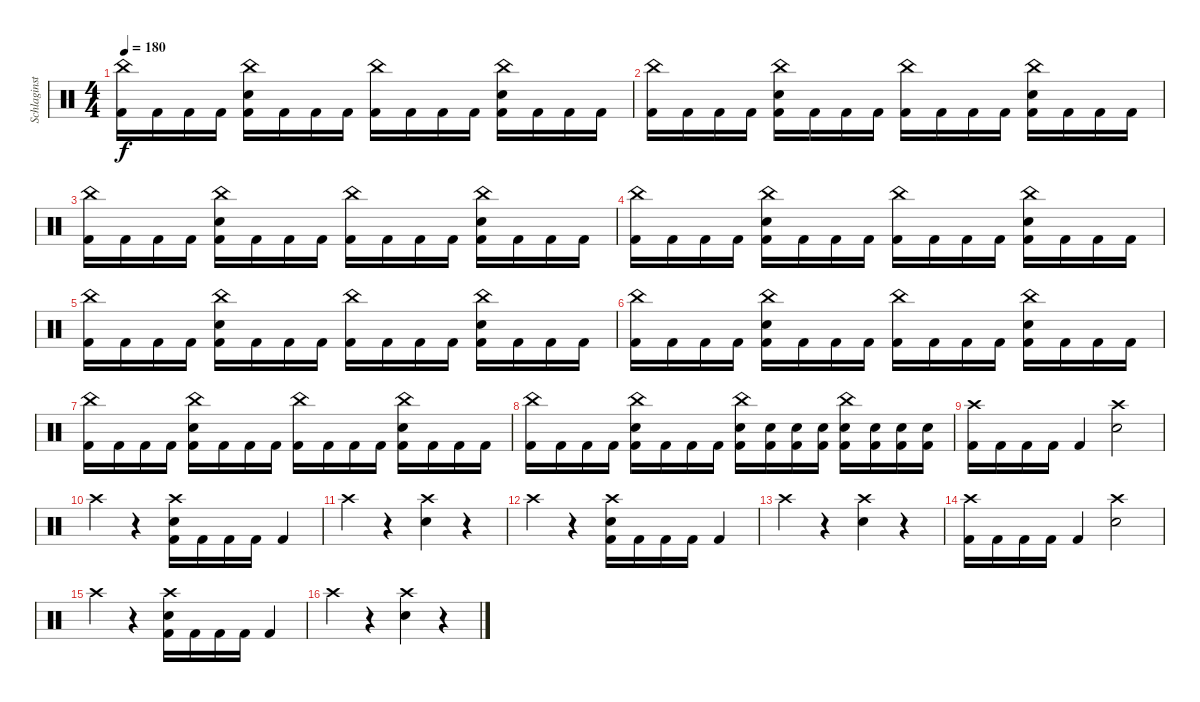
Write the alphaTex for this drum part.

\track ("Schlaginstrumente - Auswahl" "Schlaginst") {instrument percussion}
\staff {score}
\articulation defaults
\ts (4 4)
\tempo 180
\clef neutral
\ks c
("China (hit)" "Kick (hit) 2").16{dy f} "Kick (hit) 2".16 "Kick (hit) 2".16 "Kick (hit) 2".16 ("China (hit)" "Snare (hit) 2" "Kick (hit) 2").16 "Kick (hit) 2".16 "Kick (hit) 2".16 "Kick (hit) 2".16 ("China (hit)" "Kick (hit) 2").16 "Kick (hit) 2".16 "Kick (hit) 2".16 "Kick (hit) 2".16 ("China (hit)" "Snare (hit) 2" "Kick (hit) 2").16 "Kick (hit) 2".16 "Kick (hit) 2".16 "Kick (hit) 2".16 |
("China (hit)" "Kick (hit) 2").16 "Kick (hit) 2".16 "Kick (hit) 2".16 "Kick (hit) 2".16 ("China (hit)" "Snare (hit) 2" "Kick (hit) 2").16 "Kick (hit) 2".16 "Kick (hit) 2".16 "Kick (hit) 2".16 ("China (hit)" "Kick (hit) 2").16 "Kick (hit) 2".16 "Kick (hit) 2".16 "Kick (hit) 2".16 ("China (hit)" "Snare (hit) 2" "Kick (hit) 2").16 "Kick (hit) 2".16 "Kick (hit) 2".16 "Kick (hit) 2".16 |
("China (hit)" "Kick (hit) 2").16 "Kick (hit) 2".16 "Kick (hit) 2".16 "Kick (hit) 2".16 ("China (hit)" "Snare (hit) 2" "Kick (hit) 2").16 "Kick (hit) 2".16 "Kick (hit) 2".16 "Kick (hit) 2".16 ("China (hit)" "Kick (hit) 2").16 "Kick (hit) 2".16 "Kick (hit) 2".16 "Kick (hit) 2".16 ("China (hit)" "Snare (hit) 2" "Kick (hit) 2").16 "Kick (hit) 2".16 "Kick (hit) 2".16 "Kick (hit) 2".16 |
("China (hit)" "Kick (hit) 2").16 "Kick (hit) 2".16 "Kick (hit) 2".16 "Kick (hit) 2".16 ("China (hit)" "Snare (hit) 2" "Kick (hit) 2").16 "Kick (hit) 2".16 "Kick (hit) 2".16 "Kick (hit) 2".16 ("China (hit)" "Kick (hit) 2").16 "Kick (hit) 2".16 "Kick (hit) 2".16 "Kick (hit) 2".16 ("China (hit)" "Snare (hit) 2" "Kick (hit) 2").16 "Kick (hit) 2".16 "Kick (hit) 2".16 "Kick (hit) 2".16 |
("China (hit)" "Kick (hit) 2").16 "Kick (hit) 2".16 "Kick (hit) 2".16 "Kick (hit) 2".16 ("China (hit)" "Snare (hit) 2" "Kick (hit) 2").16 "Kick (hit) 2".16 "Kick (hit) 2".16 "Kick (hit) 2".16 ("China (hit)" "Kick (hit) 2").16 "Kick (hit) 2".16 "Kick (hit) 2".16 "Kick (hit) 2".16 ("China (hit)" "Snare (hit) 2" "Kick (hit) 2").16 "Kick (hit) 2".16 "Kick (hit) 2".16 "Kick (hit) 2".16 |
("China (hit)" "Kick (hit) 2").16 "Kick (hit) 2".16 "Kick (hit) 2".16 "Kick (hit) 2".16 ("China (hit)" "Snare (hit) 2" "Kick (hit) 2").16 "Kick (hit) 2".16 "Kick (hit) 2".16 "Kick (hit) 2".16 ("China (hit)" "Kick (hit) 2").16 "Kick (hit) 2".16 "Kick (hit) 2".16 "Kick (hit) 2".16 ("China (hit)" "Snare (hit) 2" "Kick (hit) 2").16 "Kick (hit) 2".16 "Kick (hit) 2".16 "Kick (hit) 2".16 |
("China (hit)" "Kick (hit) 2").16 "Kick (hit) 2".16 "Kick (hit) 2".16 "Kick (hit) 2".16 ("China (hit)" "Snare (hit) 2" "Kick (hit) 2").16 "Kick (hit) 2".16 "Kick (hit) 2".16 "Kick (hit) 2".16 ("China (hit)" "Kick (hit) 2").16 "Kick (hit) 2".16 "Kick (hit) 2".16 "Kick (hit) 2".16 ("China (hit)" "Snare (hit) 2" "Kick (hit) 2").16 "Kick (hit) 2".16 "Kick (hit) 2".16 "Kick (hit) 2".16 |
("China (hit)" "Kick (hit) 2").16 "Kick (hit) 2".16 "Kick (hit) 2".16 "Kick (hit) 2".16 ("China (hit)" "Snare (hit) 2" "Kick (hit) 2").16 "Kick (hit) 2".16 "Kick (hit) 2".16 "Kick (hit) 2".16 ("China (hit)" "Snare (hit) 2" "Kick (hit) 2").16 ("Snare (hit) 2" "Kick (hit) 2").16 ("Snare (hit) 2" "Kick (hit) 2").16 ("Snare (hit) 2" "Kick (hit) 2").16 ("China (hit)" "Snare (hit) 2" "Kick (hit) 2").16 ("Snare (hit) 2" "Kick (hit) 2").16 ("Snare (hit) 2" "Kick (hit) 2").16 ("Snare (hit) 2" "Kick (hit) 2").16 |
("Crash high (hit)" "Kick (hit) 2").16 "Kick (hit) 2".16 "Kick (hit) 2".16 "Kick (hit) 2".16 "Kick (hit) 2".4 ("Crash high (hit)" "Snare (hit) 2").2 |
"Crash high (hit)".4 r.4 ("Crash high (hit)" "Snare (hit) 2" "Kick (hit) 2").16 "Kick (hit) 2".16 "Kick (hit) 2".16 "Kick (hit) 2".16 "Kick (hit) 2".4 |
"Crash high (hit)".4 r.4 ("Crash high (hit)" "Snare (hit) 2").4 r.4 |
"Crash high (hit)".4 r.4 ("Crash high (hit)" "Snare (hit) 2" "Kick (hit) 2").16 "Kick (hit) 2".16 "Kick (hit) 2".16 "Kick (hit) 2".16 "Kick (hit) 2".4 |
"Crash high (hit)".4 r.4 ("Crash high (hit)" "Snare (hit) 2").4 r.4 |
("Crash high (hit)" "Kick (hit) 2").16 "Kick (hit) 2".16 "Kick (hit) 2".16 "Kick (hit) 2".16 "Kick (hit) 2".4 ("Crash high (hit)" "Snare (hit) 2").2 |
"Crash high (hit)".4 r.4 ("Crash high (hit)" "Snare (hit) 2" "Kick (hit) 2").16 "Kick (hit) 2".16 "Kick (hit) 2".16 "Kick (hit) 2".16 "Kick (hit) 2".4 |
"Crash high (hit)".4 r.4 ("Crash high (hit)" "Snare (hit) 2").4 r.4
